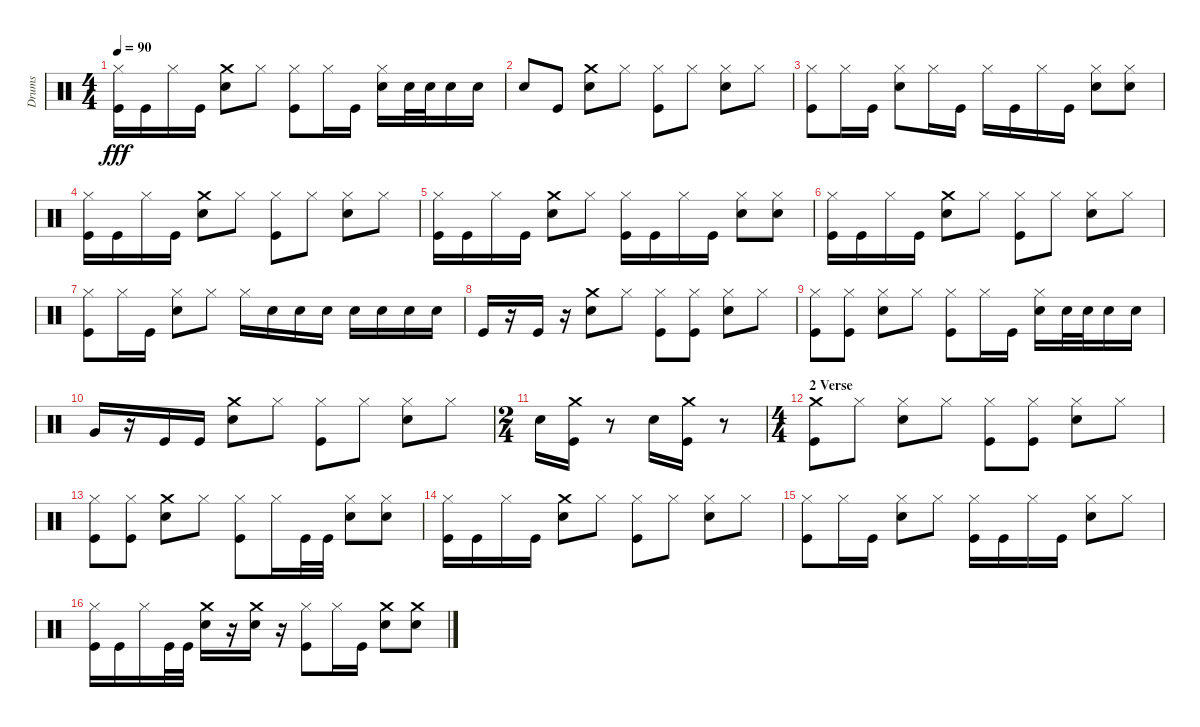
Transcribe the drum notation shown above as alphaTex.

\track ("Drums" "Drums") {instrument percussion}
\staff {score}
\articulation defaults
\ts (4 4)
\tempo 90
\clef neutral
\ks c
("Kick (hit)" "Hi-Hat (closed)").16{dy fff} "Kick (hit)".16 "Hi-Hat (closed)".16 "Kick (hit)".16 ("Crash medium (hit)" "Snare (hit) 2").8 "Hi-Hat (closed)".8 ("Hi-Hat (closed)" "Kick (hit)").8 "Hi-Hat (closed)".16 "Kick (hit)".16 ("Hi-Hat (closed)" "Snare (hit) 2").16 "Snare (hit) 2".32 "Snare (hit) 2".32 "Snare (hit) 2".16 "Snare (hit) 2".16 |
"Snare (hit) 2".8 "Kick (hit)".8 ("Crash medium (hit)" "Snare (hit) 2").8 "Hi-Hat (closed)".8 ("Kick (hit)" "Hi-Hat (closed)").8 "Hi-Hat (closed)".8 ("Snare (hit) 2" "Hi-Hat (closed)").8 "Hi-Hat (closed)".8 |
("Kick (hit)" "Hi-Hat (closed)").8 "Hi-Hat (closed)".16 "Kick (hit)".16 ("Snare (hit) 2" "Hi-Hat (closed)").8 "Hi-Hat (closed)".16 "Kick (hit)".16 "Hi-Hat (closed)".16 "Kick (hit)".16 "Hi-Hat (closed)".16 "Kick (hit)".16 ("Snare (hit) 2" "Hi-Hat (closed)").8 ("Snare (hit) 2" "Hi-Hat (closed)").8 |
("Hi-Hat (closed)" "Kick (hit)").16 "Kick (hit)".16 "Hi-Hat (closed)".16 "Kick (hit)".16 ("Snare (hit) 2" "Crash medium (hit)").8 "Hi-Hat (closed)".8 ("Hi-Hat (closed)" "Kick (hit)").8 "Hi-Hat (closed)".8 ("Snare (hit) 2" "Hi-Hat (closed)").8 "Hi-Hat (closed)".8 |
("Hi-Hat (closed)" "Kick (hit)").16 "Kick (hit)".16 "Hi-Hat (closed)".16 "Kick (hit)".16 ("Crash medium (hit)" "Snare (hit) 2").8 "Hi-Hat (closed)".8 ("Hi-Hat (closed)" "Kick (hit)").16 "Kick (hit)".16 "Hi-Hat (closed)".16 "Kick (hit)".16 ("Snare (hit) 2" "Hi-Hat (closed)").8 ("Snare (hit) 2" "Hi-Hat (closed)").8 |
("Hi-Hat (closed)" "Kick (hit)").16 "Kick (hit)".16 "Hi-Hat (closed)".16 "Kick (hit)".16 ("Snare (hit) 2" "Crash medium (hit)").8 "Hi-Hat (closed)".8 ("Kick (hit)" "Hi-Hat (closed)").8 "Hi-Hat (closed)".8 ("Snare (hit) 2" "Hi-Hat (closed)").8 "Hi-Hat (closed)".8 |
("Kick (hit)" "Hi-Hat (closed)").8 "Hi-Hat (closed)".16 "Kick (hit)".16 ("Snare (hit) 2" "Hi-Hat (closed)").8 "Hi-Hat (closed)".8 "Hi-Hat (closed)".16 "Snare (hit) 2".16 "Snare (hit) 2".16 "Snare (hit) 2".16 "Snare (hit) 2".16 "Snare (hit) 2".16 "Snare (hit) 2".16 "Snare (hit) 2".16 |
"Kick (hit)".16 r.16 "Kick (hit)".16 r.16 ("Crash medium (hit)" "Snare (hit) 2").8 "Hi-Hat (closed)".8 ("Kick (hit)" "Hi-Hat (closed)").8 ("Kick (hit)" "Hi-Hat (closed)").8 ("Snare (hit) 2" "Hi-Hat (closed)").8 "Hi-Hat (closed)".8 |
("Hi-Hat (closed)" "Kick (hit)").8 ("Hi-Hat (closed)" "Kick (hit)").8 ("Hi-Hat (closed)" "Snare (hit) 2").8 "Hi-Hat (closed)".8 ("Kick (hit)" "Hi-Hat (closed)").8 "Hi-Hat (closed)".16 "Kick (hit)".16 ("Hi-Hat (closed)" "Snare (hit) 2").16 "Snare (hit) 2".32 "Snare (hit) 2".32 "Snare (hit) 2".16 "Snare (hit) 2".16 |
"Very Low Tom (hit)".16 r.16 "Kick (hit)".16 "Kick (hit)".16 ("Crash medium (hit)" "Snare (hit) 2").8 "Hi-Hat (closed)".8 ("Kick (hit)" "Hi-Hat (closed)").8 "Hi-Hat (closed)".8 ("Snare (hit) 2" "Hi-Hat (closed)").8 "Hi-Hat (closed)".8 |
\ts (2 4)
"Snare (hit) 2".16 ("Crash medium (hit)" "Kick (hit)").16 r.8 "Snare (hit) 2".16 ("Crash medium (hit)" "Kick (hit)").16 r.8 |
\ts (4 4)
\section ("" "2 Verse")
("Crash medium (hit)" "Kick (hit)").8 "Hi-Hat (closed)".8 ("Snare (hit) 2" "Hi-Hat (closed)").8 "Hi-Hat (closed)".8 ("Kick (hit)" "Hi-Hat (closed)").8 ("Kick (hit)" "Hi-Hat (closed)").8 ("Snare (hit) 2" "Hi-Hat (closed)").8 "Hi-Hat (closed)".8 |
("Hi-Hat (closed)" "Kick (hit)").8 ("Hi-Hat (closed)" "Kick (hit)").8 ("Crash medium (hit)" "Snare (hit) 2").8 "Hi-Hat (closed)".8 ("Kick (hit)" "Hi-Hat (closed)").8 "Hi-Hat (closed)".16 "Kick (hit)".32 "Kick (hit)".32 ("Snare (hit) 2" "Hi-Hat (closed)").8 ("Snare (hit) 2" "Hi-Hat (closed)").8 |
("Hi-Hat (closed)" "Kick (hit)").16 "Kick (hit)".16 "Hi-Hat (closed)".16 "Kick (hit)".16 ("Crash medium (hit)" "Snare (hit) 2").8 "Hi-Hat (closed)".8 ("Kick (hit)" "Hi-Hat (closed)").8 "Hi-Hat (closed)".8 ("Snare (hit) 2" "Hi-Hat (closed)").8 "Hi-Hat (closed)".8 |
("Kick (hit)" "Hi-Hat (closed)").8 "Hi-Hat (closed)".16 "Kick (hit)".16 ("Snare (hit) 2" "Hi-Hat (closed)").8 "Hi-Hat (closed)".8 ("Kick (hit)" "Hi-Hat (closed)").16 "Kick (hit)".16 "Hi-Hat (closed)".16 "Kick (hit)".16 ("Snare (hit) 2" "Hi-Hat (closed)").8 "Hi-Hat (closed)".8 |
("Hi-Hat (closed)" "Kick (hit)").16 "Kick (hit)".16 "Hi-Hat (closed)".16 "Kick (hit)".32 "Kick (hit)".32 ("Crash medium (hit)" "Snare (hit) 2").16 r.16 ("Snare (hit) 2" "Crash medium (hit)").16 r.16 ("Kick (hit)" "Hi-Hat (closed)").8 "Hi-Hat (closed)".16 "Kick (hit)".16 ("Snare (hit) 2" "Crash medium (hit)").8 ("Snare (hit) 2" "Crash medium (hit)").8
